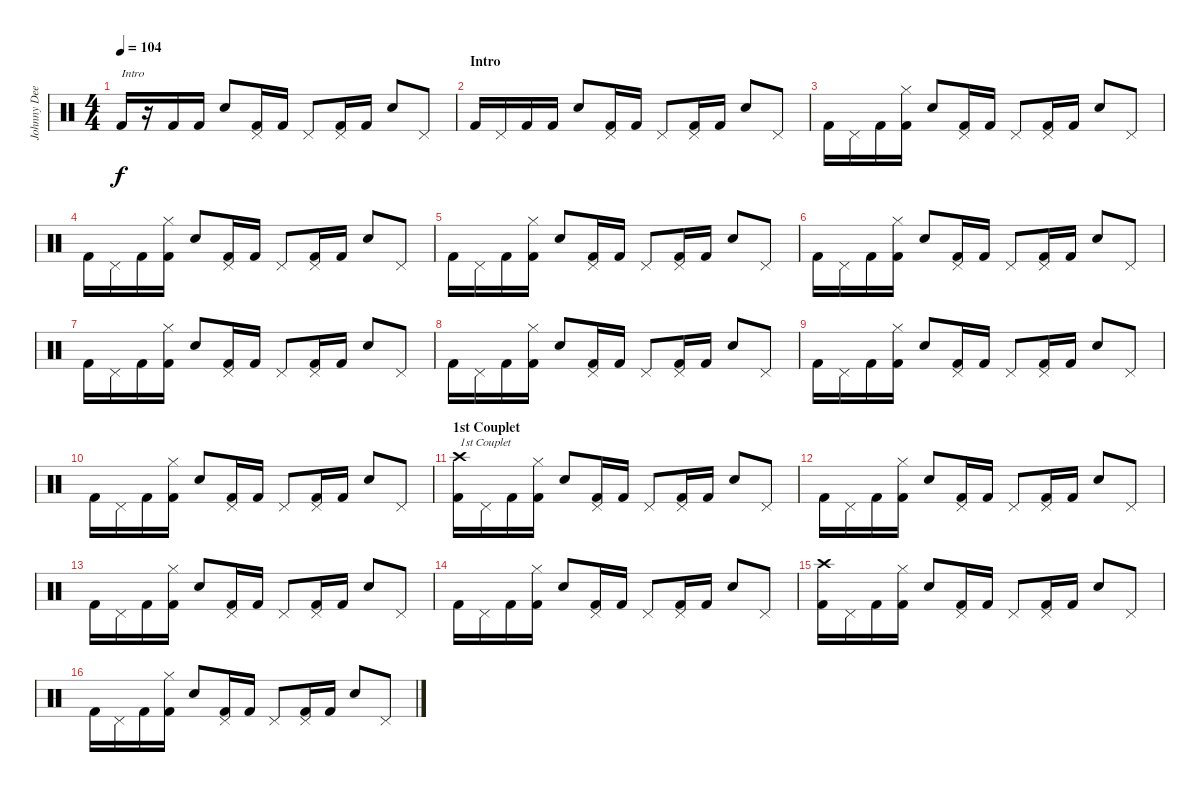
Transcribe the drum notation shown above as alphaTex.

\track ("Johnny Dee" "Johnny Dee") {instrument percussion}
\staff {score}
\articulation defaults
\ts (4 4)
\tempo 104
\clef neutral
\ks c "Kick (hit) 2".16{txt "Intro" dy f}
r.16 "Kick (hit) 2".16 "Kick (hit) 2".16 "Snare (hit) 2".8 ("Pedal Hi-Hat (hit)" "Kick (hit) 2").16 "Kick (hit) 2".16 "Pedal Hi-Hat (hit)".8 ("Pedal Hi-Hat (hit)" "Kick (hit) 2").16 "Kick (hit) 2".16 "Snare (hit) 2".8 "Pedal Hi-Hat (hit)".8 |
\section ("" "Intro")
"Kick (hit) 2".16 "Pedal Hi-Hat (hit)".16 "Kick (hit) 2".16 "Kick (hit) 2".16 "Snare (hit) 2".8 ("Pedal Hi-Hat (hit)" "Kick (hit) 2").16 "Kick (hit) 2".16 "Pedal Hi-Hat (hit)".8 ("Pedal Hi-Hat (hit)" "Kick (hit) 2").16 "Kick (hit) 2".16 "Snare (hit) 2".8 "Pedal Hi-Hat (hit)".8 |
"Kick (hit) 2".16 "Pedal Hi-Hat (hit)".16 "Kick (hit) 2".16 ("Hi-Hat (closed)" "Kick (hit) 2").16 "Snare (hit) 2".8 ("Pedal Hi-Hat (hit)" "Kick (hit) 2").16 "Kick (hit) 2".16 "Pedal Hi-Hat (hit)".8 ("Pedal Hi-Hat (hit)" "Kick (hit) 2").16 "Kick (hit) 2".16 "Snare (hit) 2".8 "Pedal Hi-Hat (hit)".8 |
"Kick (hit) 2".16 "Pedal Hi-Hat (hit)".16 "Kick (hit) 2".16 ("Hi-Hat (closed)" "Kick (hit) 2").16 "Snare (hit) 2".8 ("Pedal Hi-Hat (hit)" "Kick (hit) 2").16 "Kick (hit) 2".16 "Pedal Hi-Hat (hit)".8 ("Pedal Hi-Hat (hit)" "Kick (hit) 2").16 "Kick (hit) 2".16 "Snare (hit) 2".8 "Pedal Hi-Hat (hit)".8 |
"Kick (hit) 2".16 "Pedal Hi-Hat (hit)".16 "Kick (hit) 2".16 ("Hi-Hat (closed)" "Kick (hit) 2").16 "Snare (hit) 2".8 ("Pedal Hi-Hat (hit)" "Kick (hit) 2").16 "Kick (hit) 2".16 "Pedal Hi-Hat (hit)".8 ("Pedal Hi-Hat (hit)" "Kick (hit) 2").16 "Kick (hit) 2".16 "Snare (hit) 2".8 "Pedal Hi-Hat (hit)".8 |
"Kick (hit) 2".16 "Pedal Hi-Hat (hit)".16 "Kick (hit) 2".16 ("Hi-Hat (closed)" "Kick (hit) 2").16 "Snare (hit) 2".8 ("Pedal Hi-Hat (hit)" "Kick (hit) 2").16 "Kick (hit) 2".16 "Pedal Hi-Hat (hit)".8 ("Pedal Hi-Hat (hit)" "Kick (hit) 2").16 "Kick (hit) 2".16 "Snare (hit) 2".8 "Pedal Hi-Hat (hit)".8 |
"Kick (hit) 2".16 "Pedal Hi-Hat (hit)".16 "Kick (hit) 2".16 ("Hi-Hat (closed)" "Kick (hit) 2").16 "Snare (hit) 2".8 ("Pedal Hi-Hat (hit)" "Kick (hit) 2").16 "Kick (hit) 2".16 "Pedal Hi-Hat (hit)".8 ("Pedal Hi-Hat (hit)" "Kick (hit) 2").16 "Kick (hit) 2".16 "Snare (hit) 2".8 "Pedal Hi-Hat (hit)".8 |
"Kick (hit) 2".16 "Pedal Hi-Hat (hit)".16 "Kick (hit) 2".16 ("Hi-Hat (closed)" "Kick (hit) 2").16 "Snare (hit) 2".8 ("Pedal Hi-Hat (hit)" "Kick (hit) 2").16 "Kick (hit) 2".16 "Pedal Hi-Hat (hit)".8 ("Pedal Hi-Hat (hit)" "Kick (hit) 2").16 "Kick (hit) 2".16 "Snare (hit) 2".8 "Pedal Hi-Hat (hit)".8 |
"Kick (hit) 2".16 "Pedal Hi-Hat (hit)".16 "Kick (hit) 2".16 ("Hi-Hat (closed)" "Kick (hit) 2").16 "Snare (hit) 2".8 ("Pedal Hi-Hat (hit)" "Kick (hit) 2").16 "Kick (hit) 2".16 "Pedal Hi-Hat (hit)".8 ("Pedal Hi-Hat (hit)" "Kick (hit) 2").16 "Kick (hit) 2".16 "Snare (hit) 2".8 "Pedal Hi-Hat (hit)".8 |
"Kick (hit) 2".16 "Pedal Hi-Hat (hit)".16 "Kick (hit) 2".16 ("Hi-Hat (closed)" "Kick (hit) 2").16 "Snare (hit) 2".8 ("Pedal Hi-Hat (hit)" "Kick (hit) 2").16 "Kick (hit) 2".16 "Pedal Hi-Hat (hit)".8 ("Pedal Hi-Hat (hit)" "Kick (hit) 2").16 "Kick (hit) 2".16 "Snare (hit) 2".8 "Pedal Hi-Hat (hit)".8 |
\section ("" "1st Couplet")
("Crash high (hit)" "Kick (hit) 2").16{txt "1st Couplet"} "Pedal Hi-Hat (hit)".16 "Kick (hit) 2".16 ("Hi-Hat (closed)" "Kick (hit) 2").16 "Snare (hit) 2".8 ("Pedal Hi-Hat (hit)" "Kick (hit) 2").16 "Kick (hit) 2".16 "Pedal Hi-Hat (hit)".8 ("Pedal Hi-Hat (hit)" "Kick (hit) 2").16 "Kick (hit) 2".16 "Snare (hit) 2".8 "Pedal Hi-Hat (hit)".8 |
"Kick (hit) 2".16 "Pedal Hi-Hat (hit)".16 "Kick (hit) 2".16 ("Hi-Hat (closed)" "Kick (hit) 2").16 "Snare (hit) 2".8 ("Pedal Hi-Hat (hit)" "Kick (hit) 2").16 "Kick (hit) 2".16 "Pedal Hi-Hat (hit)".8 ("Pedal Hi-Hat (hit)" "Kick (hit) 2").16 "Kick (hit) 2".16 "Snare (hit) 2".8 "Pedal Hi-Hat (hit)".8 |
"Kick (hit) 2".16 "Pedal Hi-Hat (hit)".16 "Kick (hit) 2".16 ("Hi-Hat (closed)" "Kick (hit) 2").16 "Snare (hit) 2".8 ("Pedal Hi-Hat (hit)" "Kick (hit) 2").16 "Kick (hit) 2".16 "Pedal Hi-Hat (hit)".8 ("Pedal Hi-Hat (hit)" "Kick (hit) 2").16 "Kick (hit) 2".16 "Snare (hit) 2".8 "Pedal Hi-Hat (hit)".8 |
"Kick (hit) 2".16 "Pedal Hi-Hat (hit)".16 "Kick (hit) 2".16 ("Hi-Hat (closed)" "Kick (hit) 2").16 "Snare (hit) 2".8 ("Pedal Hi-Hat (hit)" "Kick (hit) 2").16 "Kick (hit) 2".16 "Pedal Hi-Hat (hit)".8 ("Pedal Hi-Hat (hit)" "Kick (hit) 2").16 "Kick (hit) 2".16 "Snare (hit) 2".8 "Pedal Hi-Hat (hit)".8 |
("Crash high (hit)" "Kick (hit) 2").16 "Pedal Hi-Hat (hit)".16 "Kick (hit) 2".16 ("Hi-Hat (closed)" "Kick (hit) 2").16 "Snare (hit) 2".8 ("Pedal Hi-Hat (hit)" "Kick (hit) 2").16 "Kick (hit) 2".16 "Pedal Hi-Hat (hit)".8 ("Pedal Hi-Hat (hit)" "Kick (hit) 2").16 "Kick (hit) 2".16 "Snare (hit) 2".8 "Pedal Hi-Hat (hit)".8 |
"Kick (hit) 2".16 "Pedal Hi-Hat (hit)".16 "Kick (hit) 2".16 ("Hi-Hat (closed)" "Kick (hit) 2").16 "Snare (hit) 2".8 ("Pedal Hi-Hat (hit)" "Kick (hit) 2").16 "Kick (hit) 2".16 "Pedal Hi-Hat (hit)".8 ("Pedal Hi-Hat (hit)" "Kick (hit) 2").16 "Kick (hit) 2".16 "Snare (hit) 2".8 "Pedal Hi-Hat (hit)".8
